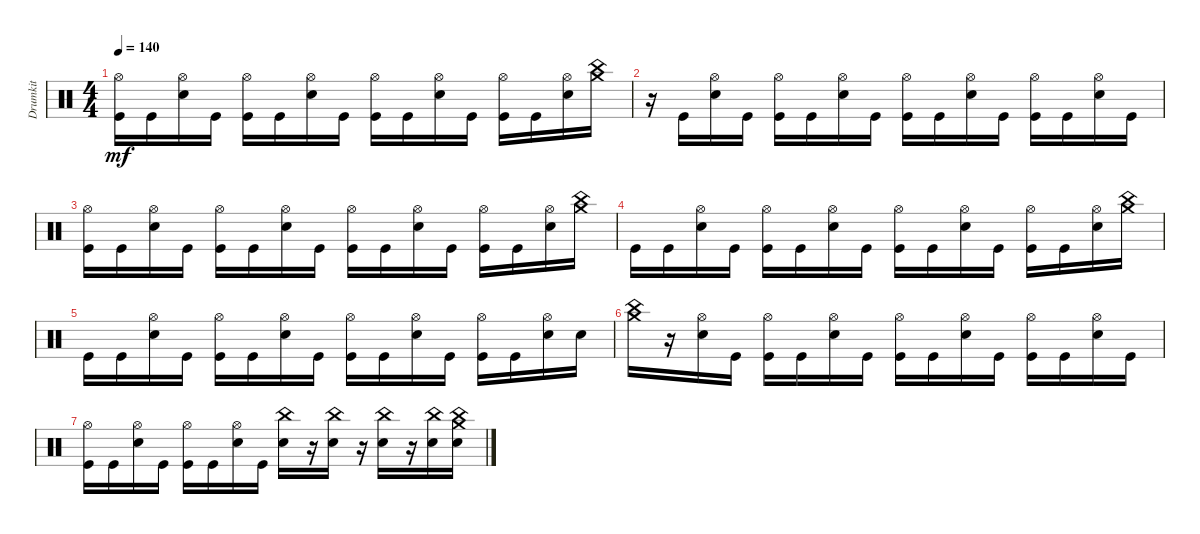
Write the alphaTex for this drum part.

\track ("Drumkit" "Drumkit") {instrument percussion}
\staff {score}
\articulation defaults
\ts (4 4)
\tempo 140
\clef neutral
\ks c
("Kick (hit)" "Hi-Hat (open)").16{dy mf} "Kick (hit)".16 ("Snare (hit) 2" "Hi-Hat (open)").16 "Kick (hit)".16 ("Kick (hit)" "Hi-Hat (open)").16 "Kick (hit)".16 ("Snare (hit) 2" "Hi-Hat (open)").16 "Kick (hit)".16 ("Kick (hit)" "Hi-Hat (open)").16 "Kick (hit)".16 ("Snare (hit) 2" "Hi-Hat (open)").16 "Kick (hit)".16 ("Kick (hit)" "Hi-Hat (open)").16 "Kick (hit)".16 ("Snare (hit) 2" "Hi-Hat (open)").16 ("China (hit)" "Crash medium (hit)").16 |
r.16 "Kick (hit)".16 ("Snare (hit) 2" "Hi-Hat (open)").16 "Kick (hit)".16 ("Kick (hit)" "Hi-Hat (open)").16 "Kick (hit)".16 ("Snare (hit) 2" "Hi-Hat (open)").16 "Kick (hit)".16 ("Kick (hit)" "Hi-Hat (open)").16 "Kick (hit)".16 ("Snare (hit) 2" "Hi-Hat (open)").16 "Kick (hit)".16 ("Kick (hit)" "Hi-Hat (open)").16 "Kick (hit)".16 ("Snare (hit) 2" "Hi-Hat (open)").16 "Kick (hit)".16 |
("Kick (hit)" "Hi-Hat (open)").16 "Kick (hit)".16 ("Snare (hit) 2" "Hi-Hat (open)").16 "Kick (hit)".16 ("Kick (hit)" "Hi-Hat (open)").16 "Kick (hit)".16 ("Snare (hit) 2" "Hi-Hat (open)").16 "Kick (hit)".16 ("Kick (hit)" "Hi-Hat (open)").16 "Kick (hit)".16 ("Snare (hit) 2" "Hi-Hat (open)").16 "Kick (hit)".16 ("Kick (hit)" "Hi-Hat (open)").16 "Kick (hit)".16 ("Snare (hit) 2" "Hi-Hat (open)").16 ("China (hit)" "Crash medium (hit)").16 |
"Kick (hit)".16 "Kick (hit)".16 ("Snare (hit) 2" "Hi-Hat (open)").16 "Kick (hit)".16 ("Kick (hit)" "Hi-Hat (open)").16 "Kick (hit)".16 ("Snare (hit) 2" "Hi-Hat (open)").16 "Kick (hit)".16 ("Kick (hit)" "Hi-Hat (open)").16 "Kick (hit)".16 ("Snare (hit) 2" "Hi-Hat (open)").16 "Kick (hit)".16 ("Kick (hit)" "Hi-Hat (open)").16 "Kick (hit)".16 ("Snare (hit) 2" "Hi-Hat (open)").16 ("China (hit)" "Crash medium (hit)").16 |
"Kick (hit)".16 "Kick (hit)".16 ("Snare (hit) 2" "Hi-Hat (open)").16 "Kick (hit)".16 ("Kick (hit)" "Hi-Hat (open)").16 "Kick (hit)".16 ("Snare (hit) 2" "Hi-Hat (open)").16 "Kick (hit)".16 ("Kick (hit)" "Hi-Hat (open)").16 "Kick (hit)".16 ("Snare (hit) 2" "Hi-Hat (open)").16 "Kick (hit)".16 ("Kick (hit)" "Hi-Hat (open)").16 "Kick (hit)".16 ("Snare (hit) 2" "Hi-Hat (open)").16 "Snare (hit) 2".16 |
("China (hit)" "Crash medium (hit)").16 r.16 ("Snare (hit) 2" "Hi-Hat (open)").16 "Kick (hit)".16 ("Kick (hit)" "Hi-Hat (open)").16 "Kick (hit)".16 ("Snare (hit) 2" "Hi-Hat (open)").16 "Kick (hit)".16 ("Kick (hit)" "Hi-Hat (open)").16 "Kick (hit)".16 ("Snare (hit) 2" "Hi-Hat (open)").16 "Kick (hit)".16 ("Kick (hit)" "Hi-Hat (open)").16 "Kick (hit)".16 ("Snare (hit) 2" "Hi-Hat (open)").16 "Kick (hit)".16 |
("Kick (hit)" "Hi-Hat (open)").16 "Kick (hit)".16 ("Snare (hit) 2" "Hi-Hat (open)").16 "Kick (hit)".16 ("Kick (hit)" "Hi-Hat (open)").16 "Kick (hit)".16 ("Snare (hit) 2" "Hi-Hat (open)").16 "Kick (hit)".16 ("Snare (hit) 2" "China (hit)").16 r.16 ("Snare (hit) 2" "China (hit)").16 r.16 ("Snare (hit) 2" "China (hit)").16 r.16 ("Snare (hit) 2" "China (hit)").16 ("China (hit)" "Crash medium (hit)" "Snare (hit) 2").16
